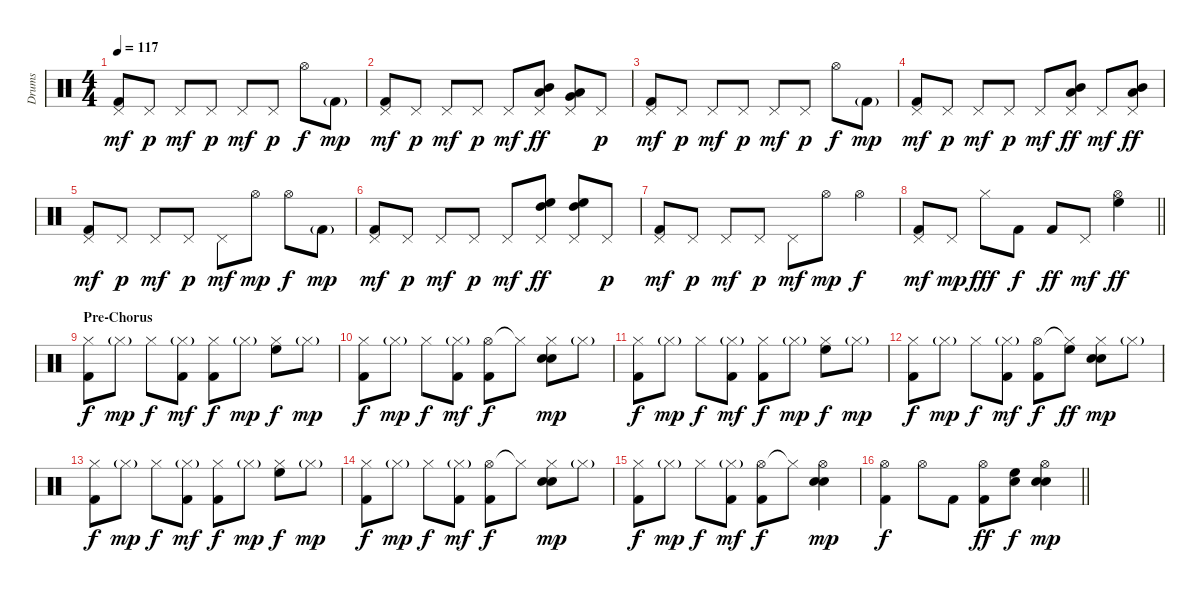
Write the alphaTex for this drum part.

\track ("Drums" "Drums") {instrument percussion}
\staff {score}
\articulation defaults
\ts (4 4)
\tempo 117
\clef neutral
\ks c
("Pedal Hi-Hat (hit)" "Kick (hit) 2").8{dy mf} "Pedal Hi-Hat (hit)".8{dy p} "Pedal Hi-Hat (hit)".8{dy mf} "Pedal Hi-Hat (hit)".8{dy p} "Pedal Hi-Hat (hit)".8{dy mf} "Pedal Hi-Hat (hit)".8{dy p} "Hi-Hat (open)".8{dy f} "Kick (hit) 2"{g}.8{dy mp} |
("Pedal Hi-Hat (hit)" "Kick (hit) 2").8{dy mf} "Pedal Hi-Hat (hit)".8{dy p} "Pedal Hi-Hat (hit)".8{dy mf} "Pedal Hi-Hat (hit)".8{dy p} "Pedal Hi-Hat (hit)".8{dy mf} ("Pedal Hi-Hat (hit)" "Mid Tom (hit)" "Low Tom (hit)").8{dy ff} ("Pedal Hi-Hat (hit)" "Low Tom (hit)" "Very Low Tom (hit)").8 "Pedal Hi-Hat (hit)".8{dy p} |
("Pedal Hi-Hat (hit)" "Kick (hit) 2").8{dy mf} "Pedal Hi-Hat (hit)".8{dy p} "Pedal Hi-Hat (hit)".8{dy mf} "Pedal Hi-Hat (hit)".8{dy p} "Pedal Hi-Hat (hit)".8{dy mf} "Pedal Hi-Hat (hit)".8{dy p} "Hi-Hat (open)".8{dy f} "Kick (hit) 2"{g}.8{dy mp} |
("Pedal Hi-Hat (hit)" "Kick (hit) 2").8{dy mf} "Pedal Hi-Hat (hit)".8{dy p} "Pedal Hi-Hat (hit)".8{dy mf} "Pedal Hi-Hat (hit)".8{dy p} "Pedal Hi-Hat (hit)".8{dy mf} ("Pedal Hi-Hat (hit)" "Mid Tom (hit)" "Low Tom (hit)").8{dy ff} "Pedal Hi-Hat (hit)".8{dy mf} ("Pedal Hi-Hat (hit)" "Mid Tom (hit)" "Low Tom (hit)").8{dy ff} |
("Pedal Hi-Hat (hit)" "Kick (hit) 2").8{dy mf} "Pedal Hi-Hat (hit)".8{dy p} "Pedal Hi-Hat (hit)".8{dy mf} "Pedal Hi-Hat (hit)".8{dy p} "Pedal Hi-Hat (hit)".8{dy mf} "Hi-Hat (open)".8{dy mp} "Hi-Hat (open)".8{dy f} "Kick (hit) 2"{g}.8{dy mp} |
("Pedal Hi-Hat (hit)" "Kick (hit) 2").8{dy mf} "Pedal Hi-Hat (hit)".8{dy p} "Pedal Hi-Hat (hit)".8{dy mf} "Pedal Hi-Hat (hit)".8{dy p} "Pedal Hi-Hat (hit)".8{dy mf} ("Pedal Hi-Hat (hit)" "High Tom (hit)" "High Floor Tom (hit)").8{dy ff} ("Pedal Hi-Hat (hit)" "High Tom (hit)" "High Floor Tom (hit)").8 "Pedal Hi-Hat (hit)".8{dy p} |
("Pedal Hi-Hat (hit)" "Kick (hit) 2").8{dy mf} "Pedal Hi-Hat (hit)".8{dy p} "Pedal Hi-Hat (hit)".8{dy mf} "Pedal Hi-Hat (hit)".8{dy p} "Pedal Hi-Hat (hit)".8{dy mf} "Hi-Hat (open)".8{dy mp} "Hi-Hat (open)".4{dy f} |
\barLineRight lightlight
("Pedal Hi-Hat (hit)" "Kick (hit) 2").8{dy mf} "Pedal Hi-Hat (hit)".8{dy mp} "Hi-Hat (closed)".8{dy fff} "Kick (hit) 2".8{dy f} "Kick (hit) 2".8{dy ff} "Pedal Hi-Hat (hit)".8{dy mf} ("Hi-Hat (open)" "High Floor Tom (hit)").4{dy ff} |
\section ("" "Pre-Chorus")
("Hi-Hat (closed)" "Kick (hit) 2").8{dy f} "Hi-Hat (closed)"{g}.8{dy mp} "Hi-Hat (closed)".8{dy f} ("Hi-Hat (closed)"{g} "Kick (hit) 2").8{dy mf} ("Hi-Hat (closed)" "Kick (hit) 2").8{dy f} "Hi-Hat (closed)"{g}.8{dy mp} ("Hi-Hat (closed)" "High Floor Tom (hit)").8{dy f} "Hi-Hat (closed)"{g}.8{dy mp} |
("Hi-Hat (closed)" "Kick (hit) 2").8{dy f} "Hi-Hat (closed)"{g}.8{dy mp} "Hi-Hat (closed)".8{dy f} ("Hi-Hat (closed)"{g} "Kick (hit) 2").8{dy mf} ("Hi-Hat (open)" "Kick (hit) 2").8{dy f} "Hi-Hat (closed)"{t}.8 ("Hi-Hat (closed)" "Electric Snare (hit)" "Snare (hit) 2").8{dy mp} "Hi-Hat (closed)"{g}.8 |
("Hi-Hat (closed)" "Kick (hit) 2").8{dy f} "Hi-Hat (closed)"{g}.8{dy mp} "Hi-Hat (closed)".8{dy f} ("Hi-Hat (closed)"{g} "Kick (hit) 2").8{dy mf} ("Hi-Hat (closed)" "Kick (hit) 2").8{dy f} "Hi-Hat (closed)"{g}.8{dy mp} ("Hi-Hat (closed)" "High Floor Tom (hit)").8{dy f} "Hi-Hat (closed)"{g}.8{dy mp} |
("Hi-Hat (closed)" "Kick (hit) 2").8{dy f} "Hi-Hat (closed)"{g}.8{dy mp} "Hi-Hat (closed)".8{dy f} ("Hi-Hat (closed)"{g} "Kick (hit) 2").8{dy mf} ("Hi-Hat (open)" "Kick (hit) 2").8{dy f} ("Hi-Hat (closed)"{t} "High Floor Tom (hit)").8{dy ff} ("Hi-Hat (closed)" "Electric Snare (hit)" "Snare (hit) 2").8{dy mp} "Hi-Hat (closed)"{g}.8 |
("Hi-Hat (closed)" "Kick (hit) 2").8{dy f} "Hi-Hat (closed)"{g}.8{dy mp} "Hi-Hat (closed)".8{dy f} ("Hi-Hat (closed)"{g} "Kick (hit) 2").8{dy mf} ("Hi-Hat (closed)" "Kick (hit) 2").8{dy f} "Hi-Hat (closed)"{g}.8{dy mp} ("Hi-Hat (closed)" "High Floor Tom (hit)").8{dy f} "Hi-Hat (closed)"{g}.8{dy mp} |
("Hi-Hat (closed)" "Kick (hit) 2").8{dy f} "Hi-Hat (closed)"{g}.8{dy mp} "Hi-Hat (closed)".8{dy f} ("Hi-Hat (closed)"{g} "Kick (hit) 2").8{dy mf} ("Hi-Hat (open)" "Kick (hit) 2").8{dy f} "Hi-Hat (closed)"{t}.8 ("Hi-Hat (closed)" "Electric Snare (hit)" "Snare (hit) 2").8{dy mp} "Hi-Hat (closed)"{g}.8 |
("Hi-Hat (closed)" "Kick (hit) 2").8{dy f} "Hi-Hat (closed)"{g}.8{dy mp} "Hi-Hat (closed)".8{dy f} ("Hi-Hat (closed)"{g} "Kick (hit) 2").8{dy mf} ("Hi-Hat (open)" "Kick (hit) 2").8{dy f} "Hi-Hat (closed)"{t}.8 ("Hi-Hat (open)" "Electric Snare (hit)" "Snare (hit) 2").4{dy mp} |
\barLineRight lightlight
("Hi-Hat (open)" "Kick (hit) 2").4{dy f} "Hi-Hat (open)".8 "Kick (hit) 2".8 ("Hi-Hat (open)" "Kick (hit) 2").8{dy ff} ("High Floor Tom (hit)" "Electric Snare (hit)").8{dy f} ("Hi-Hat (open)" "Electric Snare (hit)" "Snare (hit) 2").4{dy mp}
